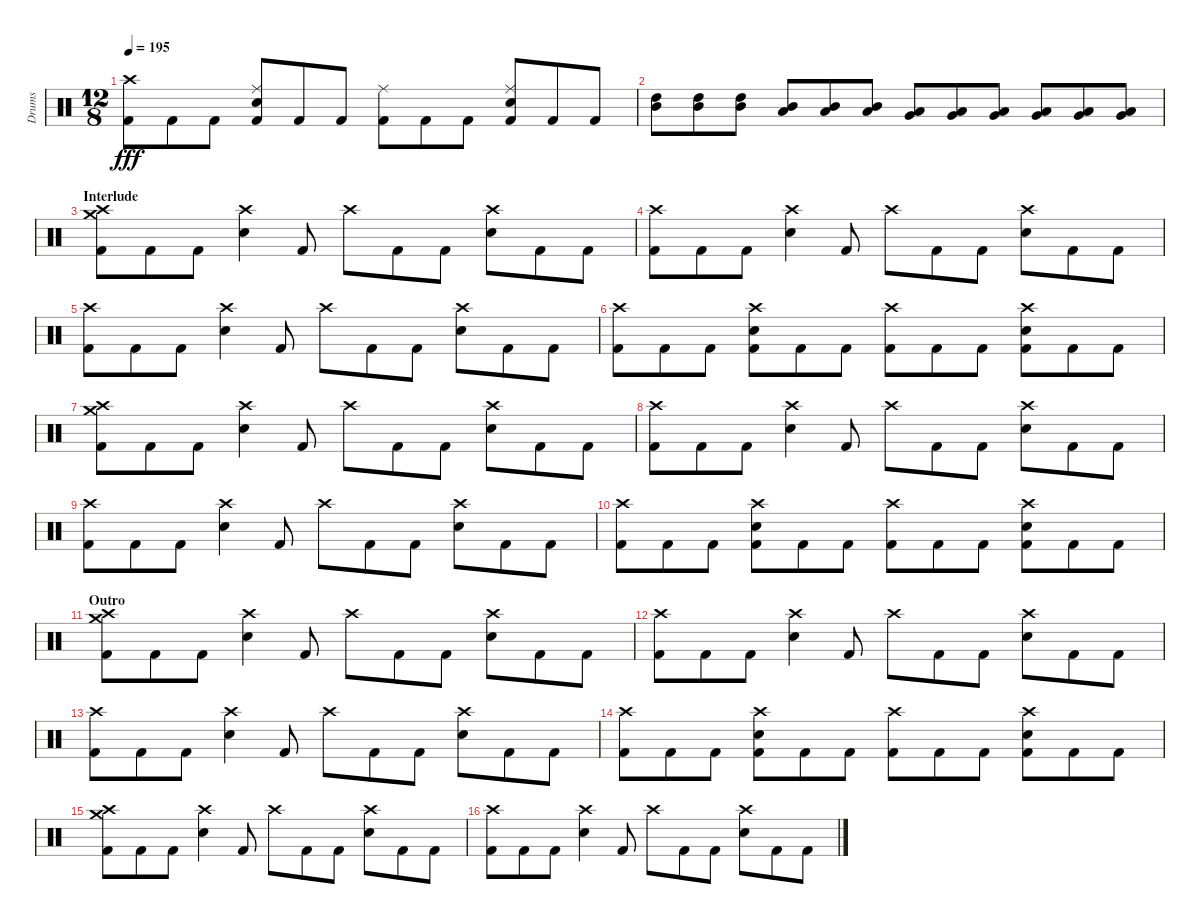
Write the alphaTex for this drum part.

\track ("Drums" "Drums") {instrument percussion}
\staff {score}
\articulation defaults
\ts (12 8)
\tempo 195
\clef neutral
\ks c
("Crash high (hit)" "Kick (hit) 2").8{dy fff} "Kick (hit) 2".8 "Kick (hit) 2".8 ("Ride (middle)" "Electric Snare (hit)" "Kick (hit) 2").8 "Kick (hit) 2".8 "Kick (hit) 2".8 ("Ride (middle)" "Kick (hit) 2").8 "Kick (hit) 2".8 "Kick (hit) 2".8 ("Ride (middle)" "Electric Snare (hit)" "Kick (hit) 2").8 "Kick (hit) 2".8 "Kick (hit) 2".8 |
("High Tom (hit)" "Mid Tom (hit)").8 ("High Tom (hit)" "Mid Tom (hit)").8 ("High Tom (hit)" "Mid Tom (hit)").8 ("Mid Tom (hit)" "Low Tom (hit)").8 ("Mid Tom (hit)" "Low Tom (hit)").8 ("Mid Tom (hit)" "Low Tom (hit)").8 ("Low Tom (hit)" "Very Low Tom (hit)").8 ("Low Tom (hit)" "Very Low Tom (hit)").8 ("Low Tom (hit)" "Very Low Tom (hit)").8 ("Very Low Tom (hit)" "Low Floor Tom (hit)").8 ("Very Low Tom (hit)" "Low Floor Tom (hit)").8 ("Very Low Tom (hit)" "Low Floor Tom (hit)").8 |
\section ("" "Interlude")
("Crash high (hit)" "Crash medium (hit)" "Kick (hit) 2").8 "Kick (hit) 2".8 "Kick (hit) 2".8 ("Crash high (hit)" "Electric Snare (hit)").4 "Kick (hit) 2".8 "Crash high (hit)".8 "Kick (hit) 2".8 "Kick (hit) 2".8 ("Crash high (hit)" "Electric Snare (hit)").8 "Kick (hit) 2".8 "Kick (hit) 2".8 |
("Crash high (hit)" "Kick (hit) 2").8 "Kick (hit) 2".8 "Kick (hit) 2".8 ("Crash high (hit)" "Electric Snare (hit)").4 "Kick (hit) 2".8 "Crash high (hit)".8 "Kick (hit) 2".8 "Kick (hit) 2".8 ("Crash high (hit)" "Electric Snare (hit)").8 "Kick (hit) 2".8 "Kick (hit) 2".8 |
("Crash high (hit)" "Kick (hit) 2").8 "Kick (hit) 2".8 "Kick (hit) 2".8 ("Crash high (hit)" "Electric Snare (hit)").4 "Kick (hit) 2".8 "Crash high (hit)".8 "Kick (hit) 2".8 "Kick (hit) 2".8 ("Crash high (hit)" "Electric Snare (hit)").8 "Kick (hit) 2".8 "Kick (hit) 2".8 |
("Crash high (hit)" "Kick (hit) 2").8 "Kick (hit) 2".8 "Kick (hit) 2".8 ("Crash high (hit)" "Electric Snare (hit)" "Kick (hit) 2").8 "Kick (hit) 2".8 "Kick (hit) 2".8 ("Crash high (hit)" "Kick (hit) 2").8 "Kick (hit) 2".8 "Kick (hit) 2".8 ("Crash high (hit)" "Electric Snare (hit)" "Kick (hit) 2").8 "Kick (hit) 2".8 "Kick (hit) 2".8 |
("Crash high (hit)" "Crash medium (hit)" "Kick (hit) 2").8 "Kick (hit) 2".8 "Kick (hit) 2".8 ("Crash high (hit)" "Electric Snare (hit)").4 "Kick (hit) 2".8 "Crash high (hit)".8 "Kick (hit) 2".8 "Kick (hit) 2".8 ("Crash high (hit)" "Electric Snare (hit)").8 "Kick (hit) 2".8 "Kick (hit) 2".8 |
("Crash high (hit)" "Kick (hit) 2").8 "Kick (hit) 2".8 "Kick (hit) 2".8 ("Crash high (hit)" "Electric Snare (hit)").4 "Kick (hit) 2".8 "Crash high (hit)".8 "Kick (hit) 2".8 "Kick (hit) 2".8 ("Crash high (hit)" "Electric Snare (hit)").8 "Kick (hit) 2".8 "Kick (hit) 2".8 |
("Crash high (hit)" "Kick (hit) 2").8 "Kick (hit) 2".8 "Kick (hit) 2".8 ("Crash high (hit)" "Electric Snare (hit)").4 "Kick (hit) 2".8 "Crash high (hit)".8 "Kick (hit) 2".8 "Kick (hit) 2".8 ("Crash high (hit)" "Electric Snare (hit)").8 "Kick (hit) 2".8 "Kick (hit) 2".8 |
("Crash high (hit)" "Kick (hit) 2").8 "Kick (hit) 2".8 "Kick (hit) 2".8 ("Crash high (hit)" "Electric Snare (hit)" "Kick (hit) 2").8 "Kick (hit) 2".8 "Kick (hit) 2".8 ("Crash high (hit)" "Kick (hit) 2").8 "Kick (hit) 2".8 "Kick (hit) 2".8 ("Crash high (hit)" "Electric Snare (hit)" "Kick (hit) 2").8 "Kick (hit) 2".8 "Kick (hit) 2".8 |
\section ("" "Outro")
("Crash high (hit)" "Crash medium (hit)" "Kick (hit) 2").8 "Kick (hit) 2".8 "Kick (hit) 2".8 ("Crash high (hit)" "Electric Snare (hit)").4 "Kick (hit) 2".8 "Crash high (hit)".8 "Kick (hit) 2".8 "Kick (hit) 2".8 ("Crash high (hit)" "Electric Snare (hit)").8 "Kick (hit) 2".8 "Kick (hit) 2".8 |
("Crash high (hit)" "Kick (hit) 2").8 "Kick (hit) 2".8 "Kick (hit) 2".8 ("Crash high (hit)" "Electric Snare (hit)").4 "Kick (hit) 2".8 "Crash high (hit)".8 "Kick (hit) 2".8 "Kick (hit) 2".8 ("Crash high (hit)" "Electric Snare (hit)").8 "Kick (hit) 2".8 "Kick (hit) 2".8 |
("Crash high (hit)" "Kick (hit) 2").8 "Kick (hit) 2".8 "Kick (hit) 2".8 ("Crash high (hit)" "Electric Snare (hit)").4 "Kick (hit) 2".8 "Crash high (hit)".8 "Kick (hit) 2".8 "Kick (hit) 2".8 ("Crash high (hit)" "Electric Snare (hit)").8 "Kick (hit) 2".8 "Kick (hit) 2".8 |
("Crash high (hit)" "Kick (hit) 2").8 "Kick (hit) 2".8 "Kick (hit) 2".8 ("Crash high (hit)" "Electric Snare (hit)" "Kick (hit) 2").8 "Kick (hit) 2".8 "Kick (hit) 2".8 ("Crash high (hit)" "Kick (hit) 2").8 "Kick (hit) 2".8 "Kick (hit) 2".8 ("Crash high (hit)" "Electric Snare (hit)" "Kick (hit) 2").8 "Kick (hit) 2".8 "Kick (hit) 2".8 |
("Crash high (hit)" "Crash medium (hit)" "Kick (hit) 2").8 "Kick (hit) 2".8 "Kick (hit) 2".8 ("Crash high (hit)" "Electric Snare (hit)").4 "Kick (hit) 2".8 "Crash high (hit)".8 "Kick (hit) 2".8 "Kick (hit) 2".8 ("Crash high (hit)" "Electric Snare (hit)").8 "Kick (hit) 2".8 "Kick (hit) 2".8 |
("Crash high (hit)" "Kick (hit) 2").8 "Kick (hit) 2".8 "Kick (hit) 2".8 ("Crash high (hit)" "Electric Snare (hit)").4 "Kick (hit) 2".8 "Crash high (hit)".8 "Kick (hit) 2".8 "Kick (hit) 2".8 ("Crash high (hit)" "Electric Snare (hit)").8 "Kick (hit) 2".8 "Kick (hit) 2".8
